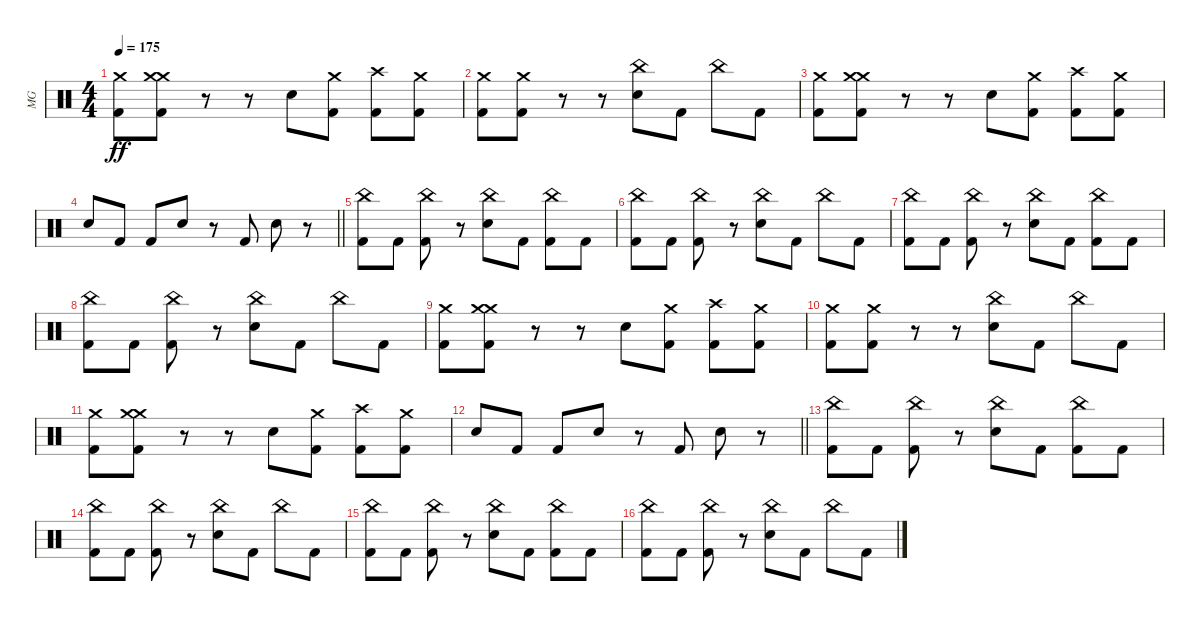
\track ("MG" "MG") {instrument percussion}
\staff {score}
\articulation defaults
\ts (4 4)
\tempo 175
\clef neutral
\ks c
("Crash medium (hit)" "Kick (hit) 2").8{dy ff} ("Crash medium (hit)" "Crash medium (hit)" "Kick (hit) 2").8 r.8 r.8 "Electric Snare (hit)".8 ("Crash medium (hit)" "Kick (hit) 2").8 ("Crash high (hit)" "Kick (hit) 2").8 ("Crash medium (hit)" "Kick (hit) 2").8 |
("Crash medium (hit)" "Kick (hit) 2").8 ("Crash medium (hit)" "Kick (hit) 2").8 r.8 r.8 ("China (hit)" "Electric Snare (hit)").8 "Kick (hit) 2".8 "China (hit)".8 "Kick (hit) 2".8 |
("Crash medium (hit)" "Kick (hit) 2").8 ("Crash medium (hit)" "Crash medium (hit)" "Kick (hit) 2").8 r.8 r.8 "Electric Snare (hit)".8 ("Crash medium (hit)" "Kick (hit) 2").8 ("Crash high (hit)" "Kick (hit) 2").8 ("Crash medium (hit)" "Kick (hit) 2").8 |
\barLineRight lightlight "Electric Snare (hit)".8 "Kick (hit) 2".8 "Kick (hit) 2".8 "Electric Snare (hit)".8
r.8 "Kick (hit) 2".8 "Electric Snare (hit)".8 r.8 |
\section ("" "")
("China (hit)" "Kick (hit) 2").8 "Kick (hit) 2".8 ("China (hit)" "Kick (hit) 2").8 r.8 ("China (hit)" "Electric Snare (hit)").8 "Kick (hit) 2".8 ("China (hit)" "Kick (hit) 2").8 "Kick (hit) 2".8 |
("China (hit)" "Kick (hit) 2").8 "Kick (hit) 2".8 ("China (hit)" "Kick (hit) 2").8 r.8 ("China (hit)" "Electric Snare (hit)").8 "Kick (hit) 2".8 "China (hit)".8 "Kick (hit) 2".8 |
("China (hit)" "Kick (hit) 2").8 "Kick (hit) 2".8 ("China (hit)" "Kick (hit) 2").8 r.8 ("China (hit)" "Electric Snare (hit)").8 "Kick (hit) 2".8 ("China (hit)" "Kick (hit) 2").8 "Kick (hit) 2".8 |
("China (hit)" "Kick (hit) 2").8 "Kick (hit) 2".8 ("China (hit)" "Kick (hit) 2").8 r.8 ("China (hit)" "Electric Snare (hit)").8 "Kick (hit) 2".8 "China (hit)".8 "Kick (hit) 2".8 |
("Crash medium (hit)" "Kick (hit) 2").8 ("Crash medium (hit)" "Crash medium (hit)" "Kick (hit) 2").8 r.8 r.8 "Electric Snare (hit)".8 ("Crash medium (hit)" "Kick (hit) 2").8 ("Crash high (hit)" "Kick (hit) 2").8 ("Crash medium (hit)" "Kick (hit) 2").8 |
("Crash medium (hit)" "Kick (hit) 2").8 ("Crash medium (hit)" "Kick (hit) 2").8 r.8 r.8 ("China (hit)" "Electric Snare (hit)").8 "Kick (hit) 2".8 "China (hit)".8 "Kick (hit) 2".8 |
("Crash medium (hit)" "Kick (hit) 2").8 ("Crash medium (hit)" "Crash medium (hit)" "Kick (hit) 2").8 r.8 r.8 "Electric Snare (hit)".8 ("Crash medium (hit)" "Kick (hit) 2").8 ("Crash high (hit)" "Kick (hit) 2").8 ("Crash medium (hit)" "Kick (hit) 2").8 |
\barLineRight lightlight "Electric Snare (hit)".8 "Kick (hit) 2".8 "Kick (hit) 2".8 "Electric Snare (hit)".8
r.8 "Kick (hit) 2".8 "Electric Snare (hit)".8 r.8 |
\section ("" "")
("China (hit)" "Kick (hit) 2").8 "Kick (hit) 2".8 ("China (hit)" "Kick (hit) 2").8 r.8 ("China (hit)" "Electric Snare (hit)").8 "Kick (hit) 2".8 ("China (hit)" "Kick (hit) 2").8 "Kick (hit) 2".8 |
("China (hit)" "Kick (hit) 2").8 "Kick (hit) 2".8 ("China (hit)" "Kick (hit) 2").8 r.8 ("China (hit)" "Electric Snare (hit)").8 "Kick (hit) 2".8 "China (hit)".8 "Kick (hit) 2".8 |
("China (hit)" "Kick (hit) 2").8 "Kick (hit) 2".8 ("China (hit)" "Kick (hit) 2").8 r.8 ("China (hit)" "Electric Snare (hit)").8 "Kick (hit) 2".8 ("China (hit)" "Kick (hit) 2").8 "Kick (hit) 2".8 |
("China (hit)" "Kick (hit) 2").8 "Kick (hit) 2".8 ("China (hit)" "Kick (hit) 2").8 r.8 ("China (hit)" "Electric Snare (hit)").8 "Kick (hit) 2".8 "China (hit)".8 "Kick (hit) 2".8
